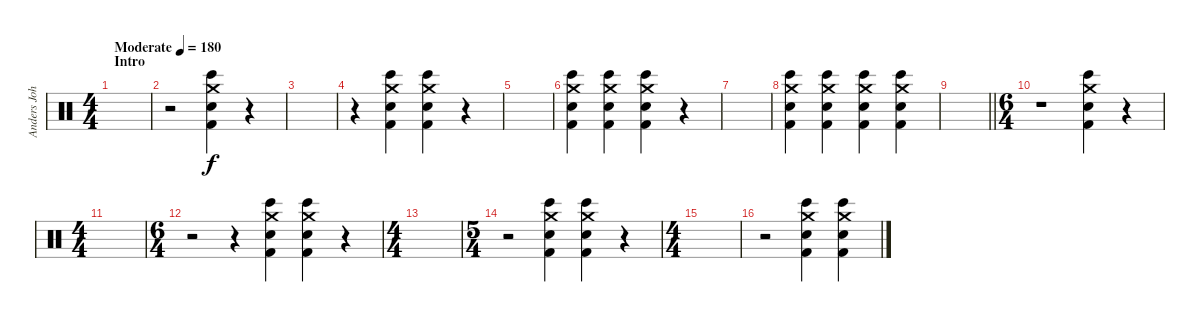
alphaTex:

\track ("Anders Johansson" "Anders Joh") {instrument percussion}
\staff {score}
\articulation defaults
\ts (4 4)
\section ("" "Intro")
\tempo (180 "Moderate")
\clef neutral
\ks c
|
r.2 ("Bongo High (hit)" "Crash medium (hit)" "Snare (hit) 2" "Kick (hit) 2").4 r.4 |
|
r.4 ("Bongo High (hit)" "Crash medium (hit)" "Snare (hit) 2" "Kick (hit) 2").4 ("Bongo High (hit)" "Crash medium (hit)" "Snare (hit) 2" "Kick (hit) 2").4 r.4 |
|
("Bongo High (hit)" "Crash medium (hit)" "Snare (hit) 2" "Kick (hit) 2").4 ("Bongo High (hit)" "Crash medium (hit)" "Snare (hit) 2" "Kick (hit) 2").4 ("Bongo High (hit)" "Crash medium (hit)" "Snare (hit) 2" "Kick (hit) 2").4 r.4 |
|
("Bongo High (hit)" "Crash medium (hit)" "Snare (hit) 2" "Kick (hit) 2").4 ("Bongo High (hit)" "Crash medium (hit)" "Snare (hit) 2" "Kick (hit) 2").4 ("Bongo High (hit)" "Crash medium (hit)" "Snare (hit) 2" "Kick (hit) 2").4 ("Bongo High (hit)" "Crash medium (hit)" "Snare (hit) 2" "Kick (hit) 2").4 |
\barLineRight lightlight
|
\ts (6 4)
r.1 ("Bongo High (hit)" "Crash medium (hit)" "Snare (hit) 2" "Kick (hit) 2").4 r.4 |
\ts (4 4)
|
\ts (6 4)
r.2 r.4 ("Bongo High (hit)" "Crash medium (hit)" "Snare (hit) 2" "Kick (hit) 2").4 ("Bongo High (hit)" "Crash medium (hit)" "Snare (hit) 2" "Kick (hit) 2").4 r.4 |
\ts (4 4)
|
\ts (5 4)
r.2 ("Bongo High (hit)" "Crash medium (hit)" "Snare (hit) 2" "Kick (hit) 2").4 ("Bongo High (hit)" "Crash medium (hit)" "Snare (hit) 2" "Kick (hit) 2").4 r.4 |
\ts (4 4)
|
r.2 ("Bongo High (hit)" "Crash medium (hit)" "Snare (hit) 2" "Kick (hit) 2").4 ("Bongo High (hit)" "Crash medium (hit)" "Snare (hit) 2" "Kick (hit) 2").4
